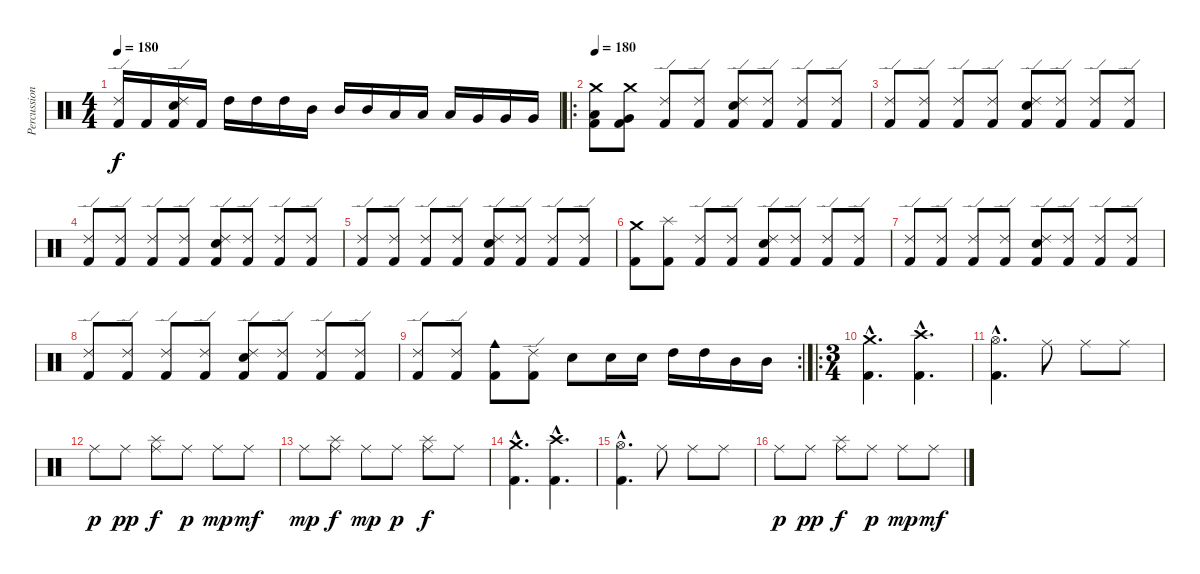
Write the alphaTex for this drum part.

\track ("Percussion" "Percussion") {instrument percussion}
\staff {score}
\articulation defaults
\ts (4 4)
\tempo 180
\clef neutral
\ks c
("Kick (hit) 2" "Ride (edge) 2").16{dy f} "Kick (hit) 2".16 ("Kick (hit) 2" "Electric Snare (hit)" "Ride (edge) 2").16 "Kick (hit) 2".16 "High Tom (hit)".16 "High Tom (hit)".16 "High Tom (hit)".16 "Mid Tom (hit)".16 "Mid Tom (hit)".16 "Mid Tom (hit)".16 "Low Tom (hit)".16 "Low Tom (hit)".16 "Low Tom (hit)".16 "Very Low Tom (hit)".16 "Very Low Tom (hit)".16 "Very Low Tom (hit)".16 |
\ro
\tempo 180
("Kick (hit) 2" "Low Tom (hit)" "Crash medium (hit)").8 ("Kick (hit) 2" "Very Low Tom (hit)" "Crash medium (hit)").8 ("Kick (hit) 2" "Ride (edge) 2").8 ("Kick (hit) 2" "Ride (edge) 2").8 ("Kick (hit) 2" "Electric Snare (hit)" "Ride (edge) 2").8 ("Kick (hit) 2" "Ride (edge) 2").8 ("Kick (hit) 2" "Ride (edge) 2").8 ("Kick (hit) 2" "Ride (edge) 2").8 |
("Kick (hit) 2" "Ride (edge) 2").8 ("Kick (hit) 2" "Ride (edge) 2").8 ("Kick (hit) 2" "Ride (edge) 2").8 ("Kick (hit) 2" "Ride (edge) 2").8 ("Kick (hit) 2" "Electric Snare (hit)" "Ride (edge) 2").8 ("Kick (hit) 2" "Ride (edge) 2").8 ("Kick (hit) 2" "Ride (edge) 2").8 ("Kick (hit) 2" "Ride (edge) 2").8 |
("Kick (hit) 2" "Ride (edge) 2").8 ("Kick (hit) 2" "Ride (edge) 2").8 ("Kick (hit) 2" "Ride (edge) 2").8 ("Kick (hit) 2" "Ride (edge) 2").8 ("Kick (hit) 2" "Electric Snare (hit)" "Ride (edge) 2").8 ("Kick (hit) 2" "Ride (edge) 2").8 ("Kick (hit) 2" "Ride (edge) 2").8 ("Kick (hit) 2" "Ride (edge) 2").8 |
("Kick (hit) 2" "Ride (edge) 2").8 ("Kick (hit) 2" "Ride (edge) 2").8 ("Kick (hit) 2" "Ride (edge) 2").8 ("Kick (hit) 2" "Ride (edge) 2").8 ("Kick (hit) 2" "Electric Snare (hit)" "Ride (edge) 2").8 ("Kick (hit) 2" "Ride (edge) 2").8 ("Kick (hit) 2" "Ride (edge) 2").8 ("Kick (hit) 2" "Ride (edge) 2").8 |
("Kick (hit) 2" "Crash medium (hit)").8 ("Kick (hit) 2" "Splash (hit)").8 ("Kick (hit) 2" "Ride (edge) 2").8 ("Kick (hit) 2" "Ride (edge) 2").8 ("Kick (hit) 2" "Electric Snare (hit)" "Ride (edge) 2").8 ("Kick (hit) 2" "Ride (edge) 2").8 ("Kick (hit) 2" "Ride (edge) 2").8 ("Kick (hit) 2" "Ride (edge) 2").8 |
("Kick (hit) 2" "Ride (edge) 2").8 ("Kick (hit) 2" "Ride (edge) 2").8 ("Kick (hit) 2" "Ride (edge) 2").8 ("Kick (hit) 2" "Ride (edge) 2").8 ("Kick (hit) 2" "Electric Snare (hit)" "Ride (edge) 2").8 ("Kick (hit) 2" "Ride (edge) 2").8 ("Kick (hit) 2" "Ride (edge) 2").8 ("Kick (hit) 2" "Ride (edge) 2").8 |
("Kick (hit) 2" "Ride (edge) 2").8 ("Kick (hit) 2" "Ride (edge) 2").8 ("Kick (hit) 2" "Ride (edge) 2").8 ("Kick (hit) 2" "Ride (edge) 2").8 ("Kick (hit) 2" "Electric Snare (hit)" "Ride (edge) 2").8 ("Kick (hit) 2" "Ride (edge) 2").8 ("Kick (hit) 2" "Ride (edge) 2").8 ("Kick (hit) 2" "Ride (edge) 2").8 |
\rc 2
("Kick (hit) 2" "Ride (edge) 2").8 ("Kick (hit) 2" "Ride (edge) 2").8 ("Kick (hit) 2" "Cowbell medium (hit)").8 ("Kick (hit) 2" "Ride (edge) 2").8 "Electric Snare (hit)".8 "Electric Snare (hit)".16 "Electric Snare (hit)".16 "High Tom (hit)".16 "High Tom (hit)".16 "Mid Tom (hit)".16 "Mid Tom (hit)".16 |
\ro
\ts (3 4)
("Kick (hit) 2"{hac} "Crash medium (hit)"{hac}).4{d} ("Kick (hit) 2"{hac} "Crash high (hit)"{hac}).4{d} |
("Kick (hit) 2"{hac} "Hi-Hat (open)"{hac}).4{d} "Ride (middle)".8 "Ride (middle)".8 "Ride (middle)".8 |
"Ride (middle)".8{dy p} "Ride (middle)".8{dy pp} ("Ride (middle)" "Splash (hit)").8{dy f} "Ride (middle)".8{dy p} "Ride (middle)".8{dy mp} "Ride (middle)".8{dy mf} |
"Ride (middle)".8{dy mp} ("Ride (middle)" "Splash (hit)").8{dy f} "Ride (middle)".8{dy mp} "Ride (middle)".8{dy p} ("Ride (middle)" "Splash (hit)").8{dy f} "Ride (middle)".8 |
("Kick (hit) 2"{hac} "Crash medium (hit)"{hac}).4{d} ("Kick (hit) 2"{hac} "Crash high (hit)"{hac}).4{d} |
("Kick (hit) 2"{hac} "Hi-Hat (open)"{hac}).4{d} "Ride (middle)".8 "Ride (middle)".8 "Ride (middle)".8 |
"Ride (middle)".8{dy p} "Ride (middle)".8{dy pp} ("Ride (middle)" "Splash (hit)").8{dy f} "Ride (middle)".8{dy p} "Ride (middle)".8{dy mp} "Ride (middle)".8{dy mf}
